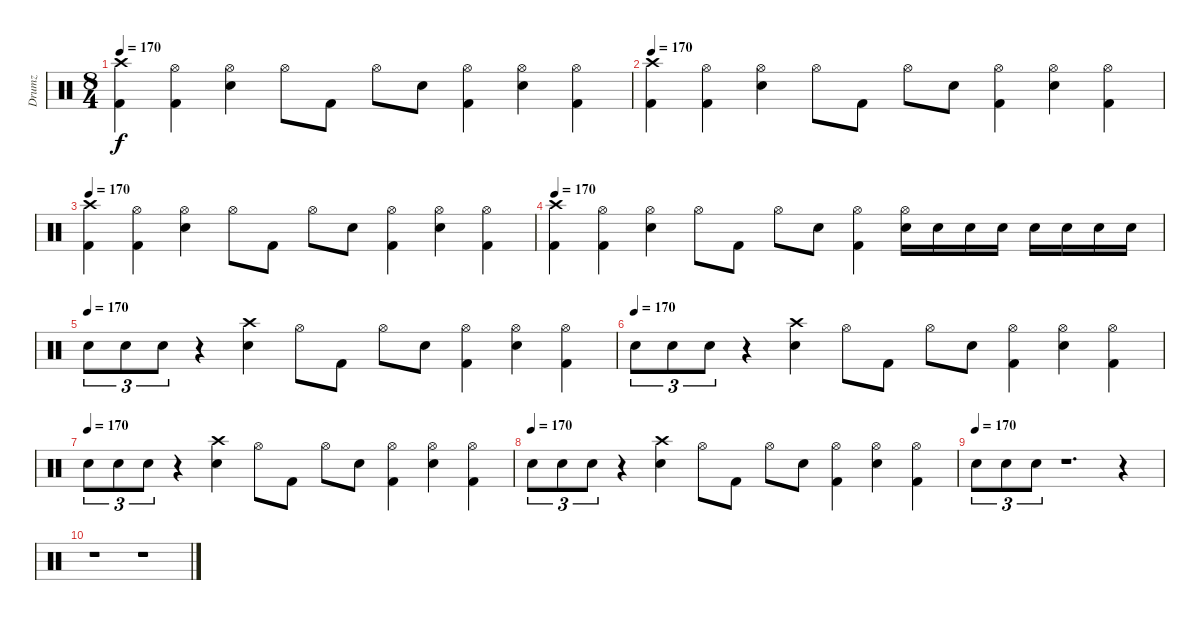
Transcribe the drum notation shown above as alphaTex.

\track ("Drumz" "Drumz") {instrument percussion}
\staff {score}
\articulation defaults
\ts (8 4)
\tempo 170
\clef neutral
\ks c
("Crash high (hit)" "Kick (hit) 2").4{dy f} ("Hi-Hat (open)" "Kick (hit) 2").4 ("Hi-Hat (open)" "Electric Snare (hit)").4 "Hi-Hat (open)".8 "Kick (hit) 2".8 "Hi-Hat (open)".8 "Electric Snare (hit)".8 ("Hi-Hat (open)" "Kick (hit) 2").4 ("Hi-Hat (open)" "Electric Snare (hit)").4 ("Hi-Hat (open)" "Kick (hit) 2").4 |
\tempo 170
("Crash high (hit)" "Kick (hit) 2").4 ("Hi-Hat (open)" "Kick (hit) 2").4 ("Hi-Hat (open)" "Electric Snare (hit)").4 "Hi-Hat (open)".8 "Kick (hit) 2".8 "Hi-Hat (open)".8 "Electric Snare (hit)".8 ("Hi-Hat (open)" "Kick (hit) 2").4 ("Hi-Hat (open)" "Electric Snare (hit)").4 ("Hi-Hat (open)" "Kick (hit) 2").4 |
\tempo 170
("Crash high (hit)" "Kick (hit) 2").4 ("Hi-Hat (open)" "Kick (hit) 2").4 ("Hi-Hat (open)" "Electric Snare (hit)").4 "Hi-Hat (open)".8 "Kick (hit) 2".8 "Hi-Hat (open)".8 "Electric Snare (hit)".8 ("Hi-Hat (open)" "Kick (hit) 2").4 ("Hi-Hat (open)" "Electric Snare (hit)").4 ("Hi-Hat (open)" "Kick (hit) 2").4 |
\tempo 170
("Crash high (hit)" "Kick (hit) 2").4 ("Hi-Hat (open)" "Kick (hit) 2").4 ("Hi-Hat (open)" "Electric Snare (hit)").4 "Hi-Hat (open)".8 "Kick (hit) 2".8 "Hi-Hat (open)".8 "Electric Snare (hit)".8 ("Hi-Hat (open)" "Kick (hit) 2").4 ("Hi-Hat (open)" "Electric Snare (hit)").16 "Electric Snare (hit)".16 "Electric Snare (hit)".16 "Electric Snare (hit)".16 "Electric Snare (hit)".16 "Electric Snare (hit)".16 "Electric Snare (hit)".16 "Electric Snare (hit)".16 |
\tempo (170)
"Electric Snare (hit)".8{tu (3 2)} "Electric Snare (hit)".8{tu (3 2)} "Electric Snare (hit)".8{tu (3 2)} r.4 ("Crash high (hit)" "Electric Snare (hit)").4 "Hi-Hat (open)".8 "Kick (hit) 2".8 "Hi-Hat (open)".8 "Electric Snare (hit)".8 ("Hi-Hat (open)" "Kick (hit) 2").4 ("Hi-Hat (open)" "Electric Snare (hit)").4 ("Hi-Hat (open)" "Kick (hit) 2").4 |
\tempo (170)
"Electric Snare (hit)".8{tu (3 2)} "Electric Snare (hit)".8{tu (3 2)} "Electric Snare (hit)".8{tu (3 2)} r.4 ("Crash high (hit)" "Electric Snare (hit)").4 "Hi-Hat (open)".8 "Kick (hit) 2".8 "Hi-Hat (open)".8 "Electric Snare (hit)".8 ("Hi-Hat (open)" "Kick (hit) 2").4 ("Hi-Hat (open)" "Electric Snare (hit)").4 ("Hi-Hat (open)" "Kick (hit) 2").4 |
\tempo (170)
"Electric Snare (hit)".8{tu (3 2)} "Electric Snare (hit)".8{tu (3 2)} "Electric Snare (hit)".8{tu (3 2)} r.4 ("Crash high (hit)" "Electric Snare (hit)").4 "Hi-Hat (open)".8 "Kick (hit) 2".8 "Hi-Hat (open)".8 "Electric Snare (hit)".8 ("Hi-Hat (open)" "Kick (hit) 2").4 ("Hi-Hat (open)" "Electric Snare (hit)").4 ("Hi-Hat (open)" "Kick (hit) 2").4 |
\tempo (170)
"Electric Snare (hit)".8{tu (3 2)} "Electric Snare (hit)".8{tu (3 2)} "Electric Snare (hit)".8{tu (3 2)} r.4 ("Crash high (hit)" "Electric Snare (hit)").4 "Hi-Hat (open)".8 "Kick (hit) 2".8 "Hi-Hat (open)".8 "Electric Snare (hit)".8 ("Hi-Hat (open)" "Kick (hit) 2").4 ("Hi-Hat (open)" "Electric Snare (hit)").4 ("Hi-Hat (open)" "Kick (hit) 2").4 |
\tempo (170)
"Electric Snare (hit)".8{tu (3 2)} "Electric Snare (hit)".8{tu (3 2)} "Electric Snare (hit)".8{tu (3 2)} r.1{d} r.4 |
r.1 r.1
